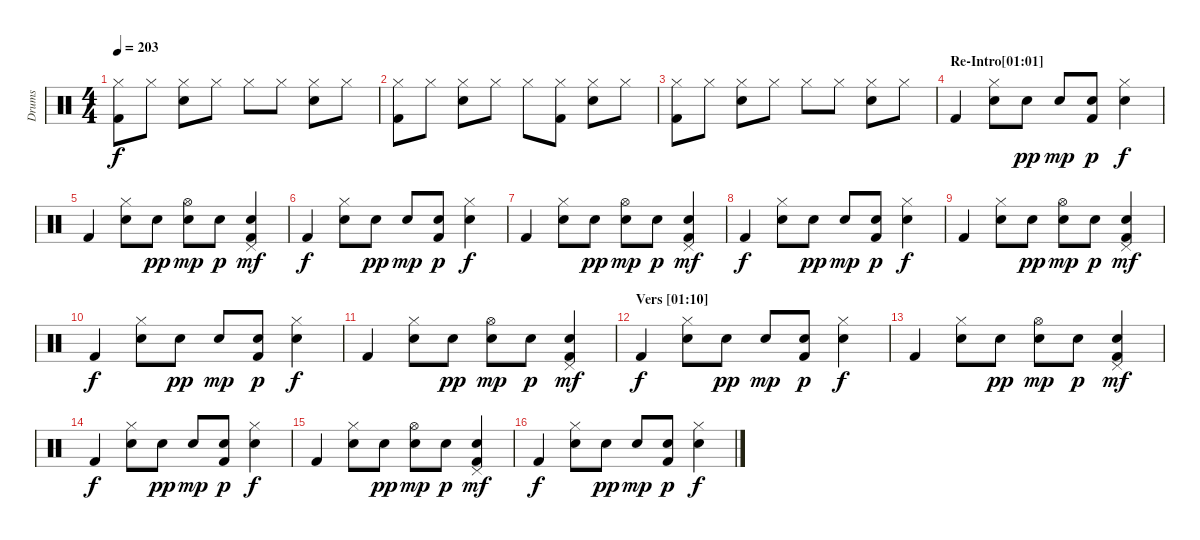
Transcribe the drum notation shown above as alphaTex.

\track ("Drums" "Drums") {instrument percussion}
\staff {score}
\articulation defaults
\ts (4 4)
\tempo 203
\clef neutral
\ks c
("Hi-Hat (closed)" "Kick (hit) 2").8{dy f} "Hi-Hat (closed)".8 ("Hi-Hat (closed)" "Electric Snare (hit)").8 "Hi-Hat (closed)".8 "Hi-Hat (closed)".8 "Hi-Hat (closed)".8 ("Hi-Hat (closed)" "Electric Snare (hit)").8 "Hi-Hat (closed)".8 |
("Hi-Hat (closed)" "Kick (hit) 2").8 "Hi-Hat (closed)".8 ("Hi-Hat (closed)" "Electric Snare (hit)").8 "Hi-Hat (closed)".8 "Hi-Hat (closed)".8 ("Hi-Hat (closed)" "Kick (hit) 2").8 ("Hi-Hat (closed)" "Electric Snare (hit)").8 "Hi-Hat (closed)".8 |
("Hi-Hat (closed)" "Kick (hit) 2").8 "Hi-Hat (closed)".8 ("Hi-Hat (closed)" "Electric Snare (hit)").8 "Hi-Hat (closed)".8 "Hi-Hat (closed)".8 "Hi-Hat (closed)".8 ("Hi-Hat (closed)" "Electric Snare (hit)").8 "Hi-Hat (closed)".8 |
\section ("" "Re-Intro[01:01]")
"Kick (hit) 2".4 ("Hi-Hat (closed)" "Electric Snare (hit)").8 "Snare (hit) 2".8{dy pp} "Snare (hit) 2".8{dy mp} ("Snare (hit) 2" "Kick (hit) 2").8{dy p} ("Hi-Hat (closed)" "Electric Snare (hit)").4{dy f} |
"Kick (hit) 2".4 ("Hi-Hat (closed)" "Electric Snare (hit)").8 "Snare (hit) 2".8{dy pp} ("Hi-Hat (open)" "Snare (hit) 2").8{dy mp} "Snare (hit) 2".8{dy p} ("Pedal Hi-Hat (hit)" "Electric Snare (hit)" "Kick (hit) 2").4{dy mf} |
"Kick (hit) 2".4{dy f} ("Hi-Hat (closed)" "Electric Snare (hit)").8 "Snare (hit) 2".8{dy pp} "Snare (hit) 2".8{dy mp} ("Snare (hit) 2" "Kick (hit) 2").8{dy p} ("Hi-Hat (closed)" "Electric Snare (hit)").4{dy f} |
"Kick (hit) 2".4 ("Hi-Hat (closed)" "Electric Snare (hit)").8 "Snare (hit) 2".8{dy pp} ("Hi-Hat (open)" "Snare (hit) 2").8{dy mp} "Snare (hit) 2".8{dy p} ("Pedal Hi-Hat (hit)" "Electric Snare (hit)" "Kick (hit) 2").4{dy mf} |
"Kick (hit) 2".4{dy f} ("Hi-Hat (closed)" "Electric Snare (hit)").8 "Snare (hit) 2".8{dy pp} "Snare (hit) 2".8{dy mp} ("Snare (hit) 2" "Kick (hit) 2").8{dy p} ("Hi-Hat (closed)" "Electric Snare (hit)").4{dy f} |
"Kick (hit) 2".4 ("Hi-Hat (closed)" "Electric Snare (hit)").8 "Snare (hit) 2".8{dy pp} ("Hi-Hat (open)" "Snare (hit) 2").8{dy mp} "Snare (hit) 2".8{dy p} ("Pedal Hi-Hat (hit)" "Electric Snare (hit)" "Kick (hit) 2").4{dy mf} |
"Kick (hit) 2".4{dy f} ("Hi-Hat (closed)" "Electric Snare (hit)").8 "Snare (hit) 2".8{dy pp} "Snare (hit) 2".8{dy mp} ("Snare (hit) 2" "Kick (hit) 2").8{dy p} ("Hi-Hat (closed)" "Electric Snare (hit)").4{dy f} |
"Kick (hit) 2".4 ("Hi-Hat (closed)" "Electric Snare (hit)").8 "Snare (hit) 2".8{dy pp} ("Hi-Hat (open)" "Snare (hit) 2").8{dy mp} "Snare (hit) 2".8{dy p} ("Pedal Hi-Hat (hit)" "Electric Snare (hit)" "Kick (hit) 2").4{dy mf} |
\section ("" "Vers [01:10]")
"Kick (hit) 2".4{dy f} ("Hi-Hat (closed)" "Electric Snare (hit)").8 "Snare (hit) 2".8{dy pp} "Snare (hit) 2".8{dy mp} ("Snare (hit) 2" "Kick (hit) 2").8{dy p} ("Hi-Hat (closed)" "Electric Snare (hit)").4{dy f} |
"Kick (hit) 2".4 ("Hi-Hat (closed)" "Electric Snare (hit)").8 "Snare (hit) 2".8{dy pp} ("Hi-Hat (open)" "Snare (hit) 2").8{dy mp} "Snare (hit) 2".8{dy p} ("Pedal Hi-Hat (hit)" "Electric Snare (hit)" "Kick (hit) 2").4{dy mf} |
"Kick (hit) 2".4{dy f} ("Hi-Hat (closed)" "Electric Snare (hit)").8 "Snare (hit) 2".8{dy pp} "Snare (hit) 2".8{dy mp} ("Snare (hit) 2" "Kick (hit) 2").8{dy p} ("Hi-Hat (closed)" "Electric Snare (hit)").4{dy f} |
"Kick (hit) 2".4 ("Hi-Hat (closed)" "Electric Snare (hit)").8 "Snare (hit) 2".8{dy pp} ("Hi-Hat (open)" "Snare (hit) 2").8{dy mp} "Snare (hit) 2".8{dy p} ("Pedal Hi-Hat (hit)" "Electric Snare (hit)" "Kick (hit) 2").4{dy mf} |
"Kick (hit) 2".4{dy f} ("Hi-Hat (closed)" "Electric Snare (hit)").8 "Snare (hit) 2".8{dy pp} "Snare (hit) 2".8{dy mp} ("Snare (hit) 2" "Kick (hit) 2").8{dy p} ("Hi-Hat (closed)" "Electric Snare (hit)").4{dy f}
